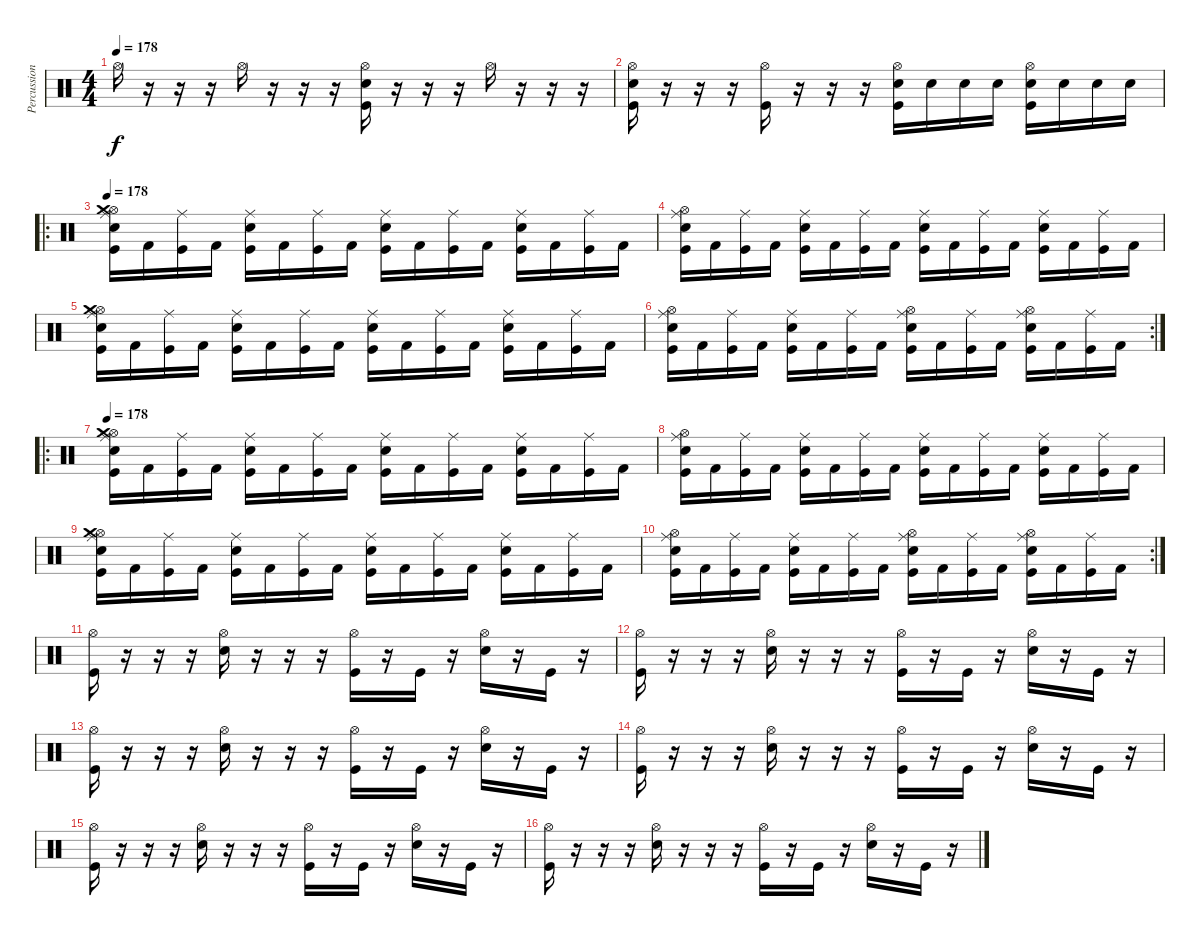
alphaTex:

\track ("Percussions" "Percussion") {instrument percussion}
\staff {score}
\articulation defaults
\ts (4 4)
\tempo 178
\clef neutral
\ks c "Hi-Hat (open)".16{dy f}
r.16 r.16 r.16 "Hi-Hat (open)".16 r.16 r.16 r.16 ("Hi-Hat (open)" "Electric Snare (hit)" "Kick (hit)").16 r.16 r.16 r.16 "Hi-Hat (open)".16 r.16 r.16 r.16 |
("Hi-Hat (open)" "Snare (hit) 2" "Kick (hit)").16 r.16 r.16 r.16 ("Hi-Hat (open)" "Kick (hit)").16 r.16 r.16 r.16 ("Hi-Hat (open)" "Snare (hit) 2" "Kick (hit)").16 "Snare (hit) 2".16 "Snare (hit) 2".16 "Snare (hit) 2".16 ("Hi-Hat (open)" "Electric Snare (hit)" "Kick (hit)").16 "Electric Snare (hit)".16 "Electric Snare (hit)".16 "Electric Snare (hit)".16 |
\ro
\tempo 178
("Electric Snare (hit)" "Ride (middle)" "Hi-Hat (open)" "Crash medium (hit)" "Kick (hit)").16 "Kick (hit) 2".16 ("Ride (middle)" "Kick (hit)").16 "Kick (hit) 2".16 ("Electric Snare (hit)" "Ride (middle)" "Kick (hit)").16 "Kick (hit) 2".16 ("Ride (middle)" "Kick (hit)").16 "Kick (hit) 2".16 ("Electric Snare (hit)" "Ride (middle)" "Kick (hit)").16 "Kick (hit) 2".16 ("Ride (middle)" "Kick (hit)").16 "Kick (hit) 2".16 ("Electric Snare (hit)" "Ride (middle)" "Kick (hit)").16 "Kick (hit) 2".16 ("Ride (middle)" "Kick (hit)").16 "Kick (hit) 2".16 |
("Electric Snare (hit)" "Ride (middle)" "Hi-Hat (open)" "Kick (hit)").16 "Kick (hit) 2".16 ("Ride (middle)" "Kick (hit)").16 "Kick (hit) 2".16 ("Electric Snare (hit)" "Ride (middle)" "Kick (hit)").16 "Kick (hit) 2".16 ("Ride (middle)" "Kick (hit)").16 "Kick (hit) 2".16 ("Electric Snare (hit)" "Ride (middle)" "Kick (hit)").16 "Kick (hit) 2".16 ("Ride (middle)" "Kick (hit)").16 "Kick (hit) 2".16 ("Electric Snare (hit)" "Ride (middle)" "Kick (hit)").16 "Kick (hit) 2".16 ("Ride (middle)" "Kick (hit)").16 "Kick (hit) 2".16 |
("Electric Snare (hit)" "Ride (middle)" "Hi-Hat (open)" "Crash medium (hit)" "Kick (hit)").16 "Kick (hit) 2".16 ("Ride (middle)" "Kick (hit)").16 "Kick (hit) 2".16 ("Electric Snare (hit)" "Ride (middle)" "Kick (hit)").16 "Kick (hit) 2".16 ("Ride (middle)" "Kick (hit)").16 "Kick (hit) 2".16 ("Electric Snare (hit)" "Ride (middle)" "Kick (hit)").16 "Kick (hit) 2".16 ("Ride (middle)" "Kick (hit)").16 "Kick (hit) 2".16 ("Electric Snare (hit)" "Ride (middle)" "Kick (hit)").16 "Kick (hit) 2".16 ("Ride (middle)" "Kick (hit)").16 "Kick (hit) 2".16 |
\rc 2
("Electric Snare (hit)" "Ride (middle)" "Hi-Hat (open)" "Kick (hit)").16 "Kick (hit) 2".16 ("Ride (middle)" "Kick (hit)").16 "Kick (hit) 2".16 ("Electric Snare (hit)" "Ride (middle)" "Kick (hit)").16 "Kick (hit) 2".16 ("Ride (middle)" "Kick (hit)").16 "Kick (hit) 2".16 ("Electric Snare (hit)" "Ride (middle)" "Hi-Hat (open)" "Kick (hit)").16 "Kick (hit) 2".16 ("Ride (middle)" "Kick (hit)").16 "Kick (hit) 2".16 ("Electric Snare (hit)" "Ride (middle)" "Hi-Hat (open)" "Kick (hit)").16 "Kick (hit) 2".16 ("Ride (middle)" "Kick (hit)").16 "Kick (hit) 2".16 |
\ro
\tempo 178
("Electric Snare (hit)" "Ride (middle)" "Hi-Hat (open)" "Crash medium (hit)" "Kick (hit)").16 "Kick (hit) 2".16 ("Ride (middle)" "Kick (hit)").16 "Kick (hit) 2".16 ("Electric Snare (hit)" "Ride (middle)" "Kick (hit)").16 "Kick (hit) 2".16 ("Ride (middle)" "Kick (hit)").16 "Kick (hit) 2".16 ("Electric Snare (hit)" "Ride (middle)" "Kick (hit)").16 "Kick (hit) 2".16 ("Ride (middle)" "Kick (hit)").16 "Kick (hit) 2".16 ("Electric Snare (hit)" "Ride (middle)" "Kick (hit)").16 "Kick (hit) 2".16 ("Ride (middle)" "Kick (hit)").16 "Kick (hit) 2".16 |
("Electric Snare (hit)" "Ride (middle)" "Hi-Hat (open)" "Kick (hit)").16 "Kick (hit) 2".16 ("Ride (middle)" "Kick (hit)").16 "Kick (hit) 2".16 ("Electric Snare (hit)" "Ride (middle)" "Kick (hit)").16 "Kick (hit) 2".16 ("Ride (middle)" "Kick (hit)").16 "Kick (hit) 2".16 ("Electric Snare (hit)" "Ride (middle)" "Kick (hit)").16 "Kick (hit) 2".16 ("Ride (middle)" "Kick (hit)").16 "Kick (hit) 2".16 ("Electric Snare (hit)" "Ride (middle)" "Kick (hit)").16 "Kick (hit) 2".16 ("Ride (middle)" "Kick (hit)").16 "Kick (hit) 2".16 |
("Electric Snare (hit)" "Ride (middle)" "Hi-Hat (open)" "Crash medium (hit)" "Kick (hit)").16 "Kick (hit) 2".16 ("Ride (middle)" "Kick (hit)").16 "Kick (hit) 2".16 ("Electric Snare (hit)" "Ride (middle)" "Kick (hit)").16 "Kick (hit) 2".16 ("Ride (middle)" "Kick (hit)").16 "Kick (hit) 2".16 ("Electric Snare (hit)" "Ride (middle)" "Kick (hit)").16 "Kick (hit) 2".16 ("Ride (middle)" "Kick (hit)").16 "Kick (hit) 2".16 ("Electric Snare (hit)" "Ride (middle)" "Kick (hit)").16 "Kick (hit) 2".16 ("Ride (middle)" "Kick (hit)").16 "Kick (hit) 2".16 |
\rc 2
("Electric Snare (hit)" "Ride (middle)" "Hi-Hat (open)" "Kick (hit)").16 "Kick (hit) 2".16 ("Ride (middle)" "Kick (hit)").16 "Kick (hit) 2".16 ("Electric Snare (hit)" "Ride (middle)" "Kick (hit)").16 "Kick (hit) 2".16 ("Ride (middle)" "Kick (hit)").16 "Kick (hit) 2".16 ("Electric Snare (hit)" "Ride (middle)" "Hi-Hat (open)" "Kick (hit)").16 "Kick (hit) 2".16 ("Ride (middle)" "Kick (hit)").16 "Kick (hit) 2".16 ("Electric Snare (hit)" "Ride (middle)" "Hi-Hat (open)" "Kick (hit)").16 "Kick (hit) 2".16 ("Ride (middle)" "Kick (hit)").16 "Kick (hit) 2".16 |
("Hi-Hat (open)" "Kick (hit)").16 r.16 r.16 r.16 ("Hi-Hat (open)" "Snare (hit) 2").16 r.16 r.16 r.16 ("Hi-Hat (open)" "Kick (hit)").16 r.16 "Kick (hit)".16 r.16 ("Hi-Hat (open)" "Snare (hit) 2").16 r.16 "Kick (hit)".16 r.16 |
("Hi-Hat (open)" "Kick (hit)").16 r.16 r.16 r.16 ("Hi-Hat (open)" "Snare (hit) 2").16 r.16 r.16 r.16 ("Hi-Hat (open)" "Kick (hit)").16 r.16 "Kick (hit)".16 r.16 ("Hi-Hat (open)" "Snare (hit) 2").16 r.16 "Kick (hit)".16 r.16 |
("Hi-Hat (open)" "Kick (hit)").16 r.16 r.16 r.16 ("Hi-Hat (open)" "Snare (hit) 2").16 r.16 r.16 r.16 ("Hi-Hat (open)" "Kick (hit)").16 r.16 "Kick (hit)".16 r.16 ("Hi-Hat (open)" "Snare (hit) 2").16 r.16 "Kick (hit)".16 r.16 |
("Hi-Hat (open)" "Kick (hit)").16 r.16 r.16 r.16 ("Hi-Hat (open)" "Snare (hit) 2").16 r.16 r.16 r.16 ("Hi-Hat (open)" "Kick (hit)").16 r.16 "Kick (hit)".16 r.16 ("Hi-Hat (open)" "Snare (hit) 2").16 r.16 "Kick (hit)".16 r.16 |
("Hi-Hat (open)" "Kick (hit)").16 r.16 r.16 r.16 ("Hi-Hat (open)" "Snare (hit) 2").16 r.16 r.16 r.16 ("Hi-Hat (open)" "Kick (hit)").16 r.16 "Kick (hit)".16 r.16 ("Hi-Hat (open)" "Snare (hit) 2").16 r.16 "Kick (hit)".16 r.16 |
("Hi-Hat (open)" "Kick (hit)").16 r.16 r.16 r.16 ("Hi-Hat (open)" "Snare (hit) 2").16 r.16 r.16 r.16 ("Hi-Hat (open)" "Kick (hit)").16 r.16 "Kick (hit)".16 r.16 ("Hi-Hat (open)" "Snare (hit) 2").16 r.16 "Kick (hit)".16 r.16
